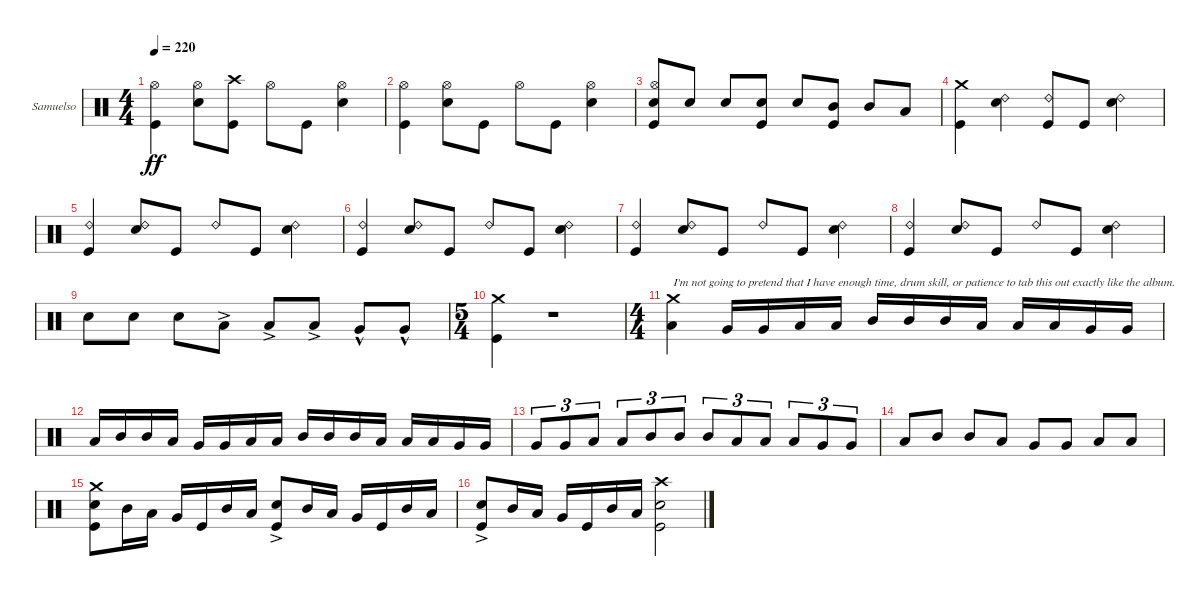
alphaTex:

\bracketExtendMode groupsimilarinstruments
\firstSystemTrackNameOrientation horizontal
\otherSystemsTrackNameOrientation horizontal
\track ("Gar Samuelson" "Samuelso") {instrument percussion}
\staff {score}
\articulation defaults
\ts (4 4)
\tempo 220
\clef neutral
\ks c
("Kick (hit)" "Hi-Hat (open)").4{dy ff} ("Snare (hit) 2" "Hi-Hat (open)").8 ("Kick (hit)" "Crash high (hit)").8 "Hi-Hat (open)".8 "Kick (hit)".8 ("Snare (hit) 2" "Hi-Hat (open)").4 |
("Kick (hit)" "Hi-Hat (open)").4 ("Snare (hit) 2" "Hi-Hat (open)").8 "Kick (hit)".8 "Hi-Hat (open)".8 "Kick (hit)".8 ("Snare (hit) 2" "Hi-Hat (open)").4 |
("Kick (hit)" "Hi-Hat (open)" "Snare (hit) 2").8 "Snare (hit) 2".8 "Snare (hit) 2".8 ("Kick (hit)" "Snare (hit) 2").8 "Snare (hit) 2".8 ("Kick (hit)" "Mid Tom (hit)").8 "Mid Tom (hit)".8 "Low Tom (hit)".8 |
("Kick (hit)" "Crash medium (hit)").4 ("Snare (hit) 2" "Ride (bell) 2").4 ("Kick (hit)" "Ride (bell) 2").8 "Kick (hit)".8 ("Snare (hit) 2" "Ride (bell) 2").4 |
("Kick (hit)" "Ride (bell) 2").4 ("Snare (hit) 2" "Ride (bell) 2").8 "Kick (hit)".8 "Ride (bell) 2".8 "Kick (hit)".8 ("Snare (hit) 2" "Ride (bell) 2").4 |
("Kick (hit)" "Ride (bell) 2").4 ("Snare (hit) 2" "Ride (bell) 2").8 "Kick (hit)".8 "Ride (bell) 2".8 "Kick (hit)".8 ("Snare (hit) 2" "Ride (bell) 2").4 |
("Kick (hit)" "Ride (bell) 2").4 ("Snare (hit) 2" "Ride (bell) 2").8 "Kick (hit)".8 "Ride (bell) 2".8 "Kick (hit)".8 ("Snare (hit) 2" "Ride (bell) 2").4 |
("Kick (hit)" "Ride (bell) 2").4 ("Snare (hit) 2" "Ride (bell) 2").8 "Kick (hit)".8 "Ride (bell) 2".8 "Kick (hit)".8 ("Snare (hit) 2" "Ride (bell) 2").4 |
"Snare (hit) 2".8 "Snare (hit) 2".8 "Snare (hit) 2".8 "Low Tom (hit)"{ac}.8 "Low Tom (hit)"{ac}.8 "Low Tom (hit)"{ac}.8 "Very Low Tom (hit)"{hac}.8 "Very Low Tom (hit)"{hac}.8 |
\ts (5 4)
("Crash medium (hit)" "Kick (hit)").4 r.1 |
\ts (4 4)
("Low Tom (hit)" "Crash medium (hit)").4{txt "I'm not going to pretend that I have enough time, drum skill, or patience to tab this out exactly like the album."} "Very Low Tom (hit)".16 "Very Low Tom (hit)".16 "Low Tom (hit)".16 "Low Tom (hit)".16 "Mid Tom (hit)".16 "Mid Tom (hit)".16 "Mid Tom (hit)".16 "Low Tom (hit)".16 "Low Tom (hit)".16 "Low Tom (hit)".16 "Very Low Tom (hit)".16 "Very Low Tom (hit)".16 |
"Low Tom (hit)".16 "Mid Tom (hit)".16 "Mid Tom (hit)".16 "Low Tom (hit)".16 "Very Low Tom (hit)".16 "Very Low Tom (hit)".16 "Low Tom (hit)".16 "Low Tom (hit)".16 "Mid Tom (hit)".16 "Mid Tom (hit)".16 "Mid Tom (hit)".16 "Low Tom (hit)".16 "Low Tom (hit)".16 "Low Tom (hit)".16 "Very Low Tom (hit)".16 "Very Low Tom (hit)".16 |
"Very Low Tom (hit)".8{tu (3 2)} "Very Low Tom (hit)".8{tu (3 2)} "Low Tom (hit)".8{tu (3 2)} "Low Tom (hit)".8{tu (3 2)} "Mid Tom (hit)".8{tu (3 2)} "Mid Tom (hit)".8{tu (3 2)} "Mid Tom (hit)".8{tu (3 2)} "Low Tom (hit)".8{tu (3 2)} "Low Tom (hit)".8{tu (3 2)} "Low Tom (hit)".8{tu (3 2)} "Very Low Tom (hit)".8{tu (3 2)} "Very Low Tom (hit)".8{tu (3 2)} |
"Low Tom (hit)".8 "Mid Tom (hit)".8 "Mid Tom (hit)".8 "Low Tom (hit)".8 "Very Low Tom (hit)".8 "Very Low Tom (hit)".8 "Low Tom (hit)".8 "Low Tom (hit)".8 |
("Crash medium (hit)" "Kick (hit)" "Snare (hit) 2").8 "Mid Tom (hit)".16 "Low Tom (hit)".16 "Very Low Tom (hit)".16 "Kick (hit)".16 "Mid Tom (hit)".16 "Low Tom (hit)".16 ("Kick (hit)" "Snare (hit) 2"{ac}).8 "Mid Tom (hit)".16 "Low Tom (hit)".16 "Very Low Tom (hit)".16 "Kick (hit)".16 "Mid Tom (hit)".16 "Low Tom (hit)".16 |
("Kick (hit)" "Snare (hit) 2"{ac}).8 "Mid Tom (hit)".16 "Low Tom (hit)".16 "Very Low Tom (hit)".16 "Kick (hit)".16 "Mid Tom (hit)".16 "Low Tom (hit)".16 ("Kick (hit)" "Snare (hit) 2" "Crash high (hit)").2
